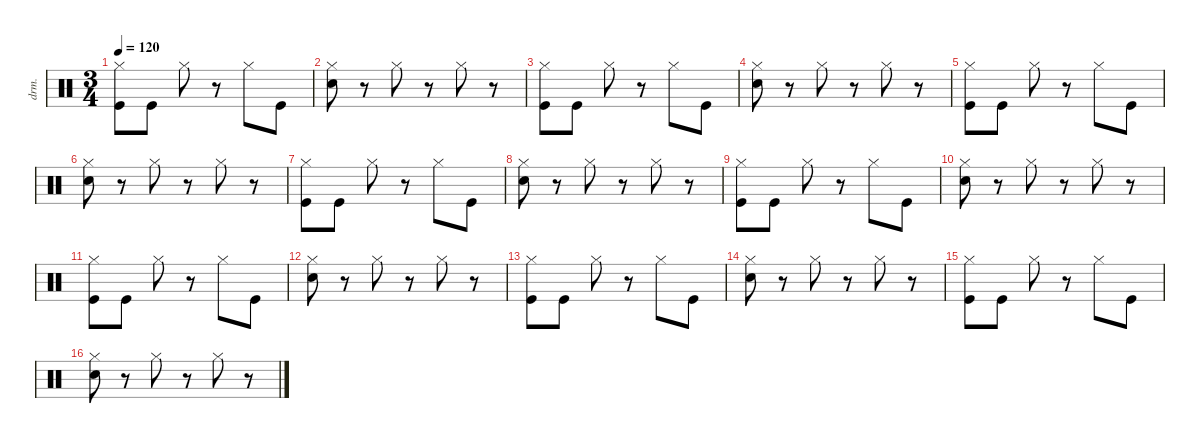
\defaultSystemsLayout 4
\hideDynamics
\bracketExtendMode nobrackets
\otherSystemsTrackNameOrientation horizontal
\track ("Drumkit" "drm.") {instrument percussion}
\staff {score}
\articulation defaults
\ts (3 4)
\beaming (8 2 2 2)
\tempo 120
\clef neutral
\ks c
("Kick (hit)" "Hi-Hat (closed)").8{dy mf} "Kick (hit)".8 "Hi-Hat (closed)".8 r.8 "Hi-Hat (closed)".8 "Kick (hit)".8 |
("Hi-Hat (closed)" "Snare (hit) 2").8 r.8 "Hi-Hat (closed)".8 r.8 "Hi-Hat (closed)".8 r.8 |
("Kick (hit)" "Hi-Hat (closed)").8 "Kick (hit)".8 "Hi-Hat (closed)".8 r.8 "Hi-Hat (closed)".8 "Kick (hit)".8 |
("Hi-Hat (closed)" "Snare (hit) 2").8 r.8 "Hi-Hat (closed)".8 r.8 "Hi-Hat (closed)".8 r.8 |
("Kick (hit)" "Hi-Hat (closed)").8 "Kick (hit)".8 "Hi-Hat (closed)".8 r.8 "Hi-Hat (closed)".8 "Kick (hit)".8 |
("Hi-Hat (closed)" "Snare (hit) 2").8 r.8 "Hi-Hat (closed)".8 r.8 "Hi-Hat (closed)".8 r.8 |
("Kick (hit)" "Hi-Hat (closed)").8 "Kick (hit)".8 "Hi-Hat (closed)".8 r.8 "Hi-Hat (closed)".8 "Kick (hit)".8 |
("Hi-Hat (closed)" "Snare (hit) 2").8 r.8 "Hi-Hat (closed)".8 r.8 "Hi-Hat (closed)".8 r.8 |
("Kick (hit)" "Hi-Hat (closed)").8 "Kick (hit)".8 "Hi-Hat (closed)".8 r.8 "Hi-Hat (closed)".8 "Kick (hit)".8 |
("Hi-Hat (closed)" "Snare (hit) 2").8 r.8 "Hi-Hat (closed)".8 r.8 "Hi-Hat (closed)".8 r.8 |
("Kick (hit)" "Hi-Hat (closed)").8 "Kick (hit)".8 "Hi-Hat (closed)".8 r.8 "Hi-Hat (closed)".8 "Kick (hit)".8 |
("Hi-Hat (closed)" "Snare (hit) 2").8 r.8 "Hi-Hat (closed)".8 r.8 "Hi-Hat (closed)".8 r.8 |
("Kick (hit)" "Hi-Hat (closed)").8 "Kick (hit)".8 "Hi-Hat (closed)".8 r.8 "Hi-Hat (closed)".8 "Kick (hit)".8 |
("Hi-Hat (closed)" "Snare (hit) 2").8 r.8 "Hi-Hat (closed)".8 r.8 "Hi-Hat (closed)".8 r.8 |
("Kick (hit)" "Hi-Hat (closed)").8 "Kick (hit)".8 "Hi-Hat (closed)".8 r.8 "Hi-Hat (closed)".8 "Kick (hit)".8 |
("Hi-Hat (closed)" "Snare (hit) 2").8 r.8 "Hi-Hat (closed)".8 r.8 "Hi-Hat (closed)".8 r.8
